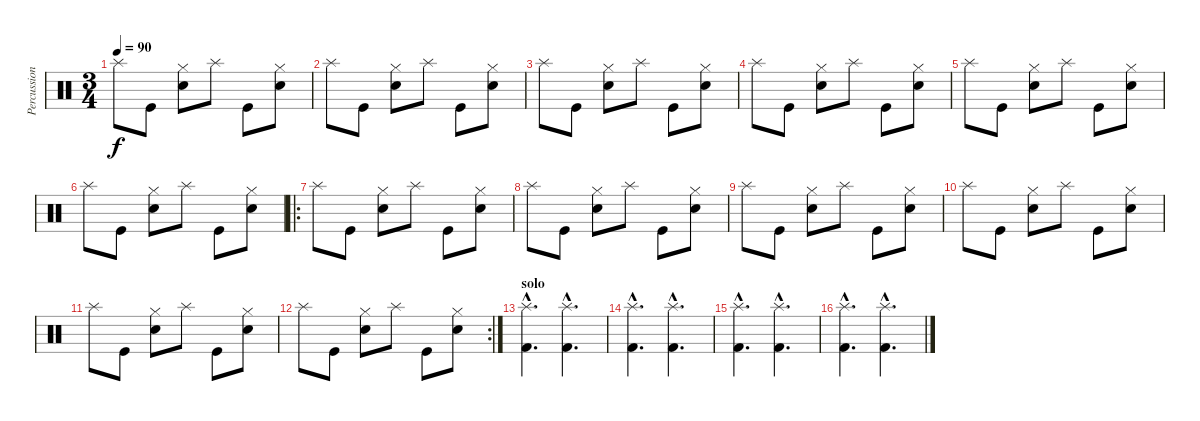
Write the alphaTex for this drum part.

\track ("Percussions" "Percussion") {instrument percussion}
\staff {score}
\articulation defaults
\ts (3 4)
\tempo 90
\clef neutral
\ks c "Splash (hit)".8{dy f} "Kick (hit)".8
("Electric Snare (hit)" "Hi-Hat (closed)").8 "Splash (hit)".8 "Kick (hit)".8 ("Electric Snare (hit)" "Hi-Hat (closed)").8 |
"Splash (hit)".8 "Kick (hit)".8 ("Electric Snare (hit)" "Hi-Hat (closed)").8 "Splash (hit)".8 "Kick (hit)".8 ("Electric Snare (hit)" "Hi-Hat (closed)").8 |
"Splash (hit)".8 "Kick (hit)".8 ("Electric Snare (hit)" "Hi-Hat (closed)").8 "Splash (hit)".8 "Kick (hit)".8 ("Electric Snare (hit)" "Hi-Hat (closed)").8 |
"Splash (hit)".8 "Kick (hit)".8 ("Electric Snare (hit)" "Hi-Hat (closed)").8 "Splash (hit)".8 "Kick (hit)".8 ("Electric Snare (hit)" "Hi-Hat (closed)").8 |
"Splash (hit)".8 "Kick (hit)".8 ("Electric Snare (hit)" "Hi-Hat (closed)").8 "Splash (hit)".8 "Kick (hit)".8 ("Electric Snare (hit)" "Hi-Hat (closed)").8 |
"Splash (hit)".8 "Kick (hit)".8 ("Electric Snare (hit)" "Hi-Hat (closed)").8 "Splash (hit)".8 "Kick (hit)".8 ("Electric Snare (hit)" "Hi-Hat (closed)").8 |
\ro "Splash (hit)".8 "Kick (hit)".8
("Electric Snare (hit)" "Hi-Hat (closed)").8 "Splash (hit)".8 "Kick (hit)".8 ("Electric Snare (hit)" "Hi-Hat (closed)").8 |
"Splash (hit)".8 "Kick (hit)".8 ("Electric Snare (hit)" "Hi-Hat (closed)").8 "Splash (hit)".8 "Kick (hit)".8 ("Electric Snare (hit)" "Hi-Hat (closed)").8 |
"Splash (hit)".8 "Kick (hit)".8 ("Electric Snare (hit)" "Hi-Hat (closed)").8 "Splash (hit)".8 "Kick (hit)".8 ("Electric Snare (hit)" "Hi-Hat (closed)").8 |
"Splash (hit)".8 "Kick (hit)".8 ("Electric Snare (hit)" "Hi-Hat (closed)").8 "Splash (hit)".8 "Kick (hit)".8 ("Electric Snare (hit)" "Hi-Hat (closed)").8 |
"Splash (hit)".8 "Kick (hit)".8 ("Electric Snare (hit)" "Hi-Hat (closed)").8 "Splash (hit)".8 "Kick (hit)".8 ("Electric Snare (hit)" "Hi-Hat (closed)").8 |
\rc 2 "Splash (hit)".8 "Kick (hit)".8
("Electric Snare (hit)" "Hi-Hat (closed)").8 "Splash (hit)".8 "Kick (hit)".8 ("Electric Snare (hit)" "Hi-Hat (closed)").8 |
\section ("" "solo")
("Splash (hit)"{hac} "Kick (hit) 2"{hac}).4{d} ("Splash (hit)"{hac} "Kick (hit) 2"{hac}).4{d} |
("Splash (hit)"{hac} "Kick (hit) 2"{hac}).4{d} ("Splash (hit)"{hac} "Kick (hit) 2"{hac}).4{d} |
("Splash (hit)"{hac} "Kick (hit) 2"{hac}).4{d} ("Splash (hit)"{hac} "Kick (hit) 2"{hac}).4{d} |
("Splash (hit)"{hac} "Kick (hit) 2"{hac}).4{d} ("Splash (hit)"{hac} "Kick (hit) 2"{hac}).4{d}
